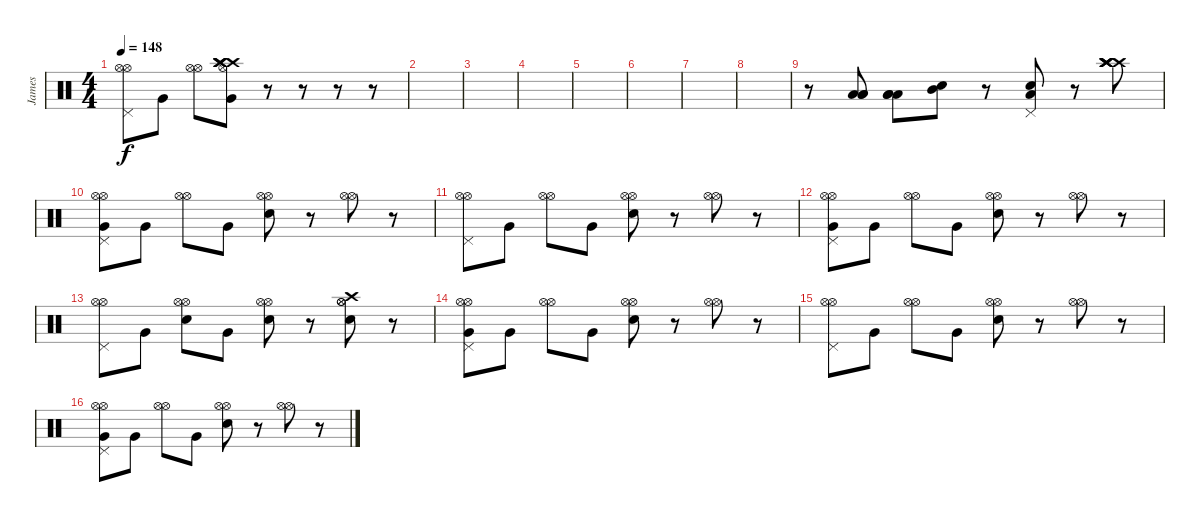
\track ("James" "James") {instrument percussion}
\staff {score}
\articulation defaults
\ts (4 4)
\tempo 148
\clef neutral
\ks c
("Hi-Hat (open)" "Pedal Hi-Hat (hit)" "Hi-Hat (open)").8{dy f} "Very Low Tom (hit)".8 ("Hi-Hat (open)" "Hi-Hat (open)").8 ("Crash high (hit)" "Crash high (hit)" "Hi-Hat (open)" "Very Low Tom (hit)" "Crash high (hit)" "Crash high (hit)").8 r.8 r.8 r.8 r.8 |
|
|
|
|
|
|
|
r.8 ("Low Floor Tom (hit)" "Low Floor Tom (hit)" "Low Floor Tom (hit)").8 ("Low Floor Tom (hit)" "Low Floor Tom (hit)" "Low Floor Tom (hit)").8 ("Mid Tom (hit)" "Electric Snare (hit)").8 r.8 ("Low Floor Tom (hit)" "Pedal Hi-Hat (hit)" "Electric Snare (hit)").8 r.8 ("Crash high (hit)" "Crash high (hit)" "Crash high (hit)" "Crash high (hit)" "Crash high (hit)").8 |
("Hi-Hat (open)" "Pedal Hi-Hat (hit)" "Very Low Tom (hit)" "Hi-Hat (open)").8 "Very Low Tom (hit)".8 ("Hi-Hat (open)" "Hi-Hat (open)").8 "Very Low Tom (hit)".8 ("Hi-Hat (open)" "Electric Snare (hit)" "Hi-Hat (open)").8 r.8 ("Hi-Hat (open)" "Hi-Hat (open)").8 r.8 |
("Hi-Hat (open)" "Pedal Hi-Hat (hit)" "Hi-Hat (open)").8 "Very Low Tom (hit)".8 ("Hi-Hat (open)" "Hi-Hat (open)").8 "Very Low Tom (hit)".8 ("Hi-Hat (open)" "Electric Snare (hit)" "Hi-Hat (open)").8 r.8 ("Hi-Hat (open)" "Hi-Hat (open)").8 r.8 |
("Hi-Hat (open)" "Pedal Hi-Hat (hit)" "Very Low Tom (hit)" "Hi-Hat (open)").8 "Very Low Tom (hit)".8 ("Hi-Hat (open)" "Hi-Hat (open)").8 "Very Low Tom (hit)".8 ("Hi-Hat (open)" "Electric Snare (hit)" "Hi-Hat (open)").8 r.8 ("Hi-Hat (open)" "Hi-Hat (open)").8 r.8 |
("Hi-Hat (open)" "Pedal Hi-Hat (hit)" "Hi-Hat (open)").8 "Very Low Tom (hit)".8 ("Hi-Hat (open)" "Electric Snare (hit)" "Hi-Hat (open)").8 "Very Low Tom (hit)".8 ("Hi-Hat (open)" "Electric Snare (hit)" "Hi-Hat (open)").8 r.8 ("Hi-Hat (open)" "Crash high (hit)" "Electric Snare (hit)" "Hi-Hat (open)").8 r.8 |
("Hi-Hat (open)" "Pedal Hi-Hat (hit)" "Very Low Tom (hit)" "Hi-Hat (open)").8 "Very Low Tom (hit)".8 ("Hi-Hat (open)" "Hi-Hat (open)").8 "Very Low Tom (hit)".8 ("Hi-Hat (open)" "Electric Snare (hit)" "Hi-Hat (open)").8 r.8 ("Hi-Hat (open)" "Hi-Hat (open)").8 r.8 |
("Hi-Hat (open)" "Pedal Hi-Hat (hit)" "Hi-Hat (open)").8 "Very Low Tom (hit)".8 ("Hi-Hat (open)" "Hi-Hat (open)").8 "Very Low Tom (hit)".8 ("Hi-Hat (open)" "Electric Snare (hit)" "Hi-Hat (open)").8 r.8 ("Hi-Hat (open)" "Hi-Hat (open)").8 r.8 |
("Hi-Hat (open)" "Pedal Hi-Hat (hit)" "Very Low Tom (hit)" "Hi-Hat (open)").8 "Very Low Tom (hit)".8 ("Hi-Hat (open)" "Hi-Hat (open)").8 "Very Low Tom (hit)".8 ("Hi-Hat (open)" "Electric Snare (hit)" "Hi-Hat (open)").8 r.8 ("Hi-Hat (open)" "Hi-Hat (open)").8 r.8
